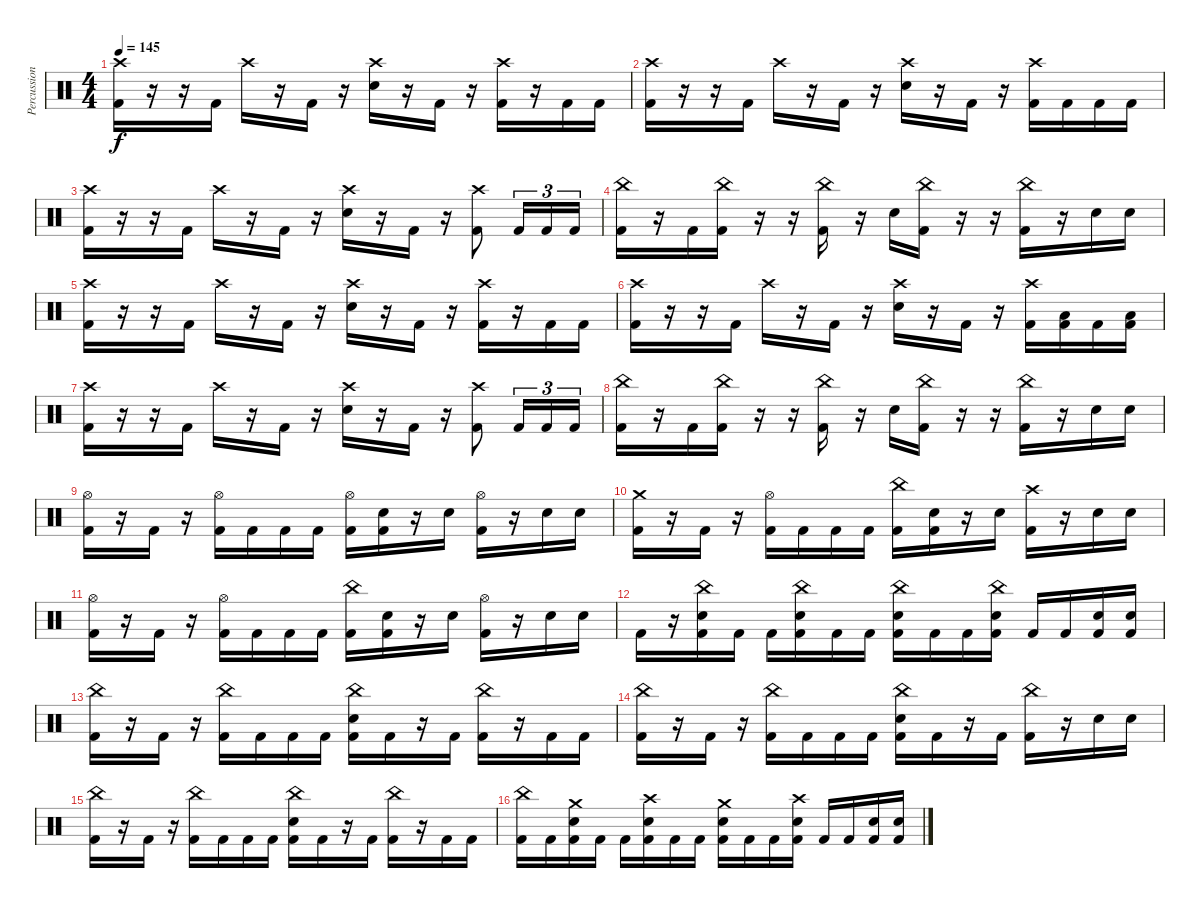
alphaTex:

\track ("Percussion" "Percussion") {instrument percussion}
\staff {score}
\articulation defaults
\ts (4 4)
\tempo 145
\clef neutral
\ks c
("Crash high (hit)" "Kick (hit) 2").16{dy f} r.16 r.16 "Kick (hit) 2".16 "Crash high (hit)".16 r.16 "Kick (hit) 2".16 r.16 ("Crash high (hit)" "Electric Snare (hit)").16 r.16 "Kick (hit) 2".16 r.16 ("Crash high (hit)" "Kick (hit) 2").16 r.16 "Kick (hit) 2".16 "Kick (hit) 2".16 |
("Crash high (hit)" "Kick (hit) 2").16 r.16 r.16 "Kick (hit) 2".16 "Crash high (hit)".16 r.16 "Kick (hit) 2".16 r.16 ("Crash high (hit)" "Electric Snare (hit)").16 r.16 "Kick (hit) 2".16 r.16 ("Crash high (hit)" "Kick (hit) 2").16 "Kick (hit) 2".16 "Kick (hit) 2".16 "Kick (hit) 2".16 |
("Crash high (hit)" "Kick (hit) 2").16 r.16 r.16 "Kick (hit) 2".16 "Crash high (hit)".16 r.16 "Kick (hit) 2".16 r.16 ("Crash high (hit)" "Electric Snare (hit)").16 r.16 "Kick (hit) 2".16 r.16 ("Crash high (hit)" "Kick (hit) 2").8 "Kick (hit) 2".16{tu (3 2)} "Kick (hit) 2".16{tu (3 2)} "Kick (hit) 2".16{tu (3 2)} |
("China (hit)" "Kick (hit) 2").16 r.16 "Kick (hit) 2".16 ("China (hit)" "Kick (hit) 2").16 r.16 r.16 ("China (hit)" "Kick (hit) 2").16 r.16 "Electric Snare (hit)".16 ("China (hit)" "Kick (hit) 2").16 r.16 r.16 ("China (hit)" "Kick (hit) 2").16 r.16 "Electric Snare (hit)".16 "Electric Snare (hit)".16 |
("Crash high (hit)" "Kick (hit) 2").16 r.16 r.16 "Kick (hit) 2".16 "Crash high (hit)".16 r.16 "Kick (hit) 2".16 r.16 ("Crash high (hit)" "Electric Snare (hit)").16 r.16 "Kick (hit) 2".16 r.16 ("Crash high (hit)" "Kick (hit) 2").16 r.16 "Kick (hit) 2".16 "Kick (hit) 2".16 |
("Crash high (hit)" "Kick (hit) 2").16 r.16 r.16 "Kick (hit) 2".16 "Crash high (hit)".16 r.16 "Kick (hit) 2".16 r.16 ("Crash high (hit)" "Electric Snare (hit)").16 r.16 "Kick (hit) 2".16 r.16 ("Crash high (hit)" "Kick (hit) 2").16 ("Low Floor Tom (hit)" "Kick (hit) 2").16 "Kick (hit) 2".16 ("Low Floor Tom (hit)" "Kick (hit) 2").16 |
("Crash high (hit)" "Kick (hit) 2").16 r.16 r.16 "Kick (hit) 2".16 "Crash high (hit)".16 r.16 "Kick (hit) 2".16 r.16 ("Crash high (hit)" "Electric Snare (hit)").16 r.16 "Kick (hit) 2".16 r.16 ("Crash high (hit)" "Kick (hit) 2").8 "Kick (hit) 2".16{tu (3 2)} "Kick (hit) 2".16{tu (3 2)} "Kick (hit) 2".16{tu (3 2)} |
("China (hit)" "Kick (hit) 2").16 r.16 "Kick (hit) 2".16 ("China (hit)" "Kick (hit) 2").16 r.16 r.16 ("China (hit)" "Kick (hit) 2").16 r.16 "Electric Snare (hit)".16 ("China (hit)" "Kick (hit) 2").16 r.16 r.16 ("China (hit)" "Kick (hit) 2").16 r.16 "Electric Snare (hit)".16 "Electric Snare (hit)".16 |
("Hi-Hat (open)" "Kick (hit) 2").16{volume 8} r.16 "Kick (hit) 2".16 r.16 ("Hi-Hat (open)" "Kick (hit) 2").16 "Kick (hit) 2".16 "Kick (hit) 2".16 "Kick (hit) 2".16 ("Hi-Hat (open)" "Kick (hit) 2").16 ("Electric Snare (hit)" "Kick (hit) 2").16 r.16 "Electric Snare (hit)".16 ("Hi-Hat (open)" "Kick (hit) 2").16 r.16 "Electric Snare (hit)".16 "Electric Snare (hit)".16 |
("Crash medium (hit)" "Kick (hit) 2").16 r.16 "Kick (hit) 2".16 r.16 ("Hi-Hat (open)" "Kick (hit) 2").16 "Kick (hit) 2".16 "Kick (hit) 2".16 "Kick (hit) 2".16 ("China (hit)" "Kick (hit) 2").16 ("Electric Snare (hit)" "Kick (hit) 2").16 r.16 "Electric Snare (hit)".16 ("Crash high (hit)" "Kick (hit) 2").16 r.16 "Electric Snare (hit)".16 "Electric Snare (hit)".16 |
("Hi-Hat (open)" "Kick (hit) 2").16 r.16 "Kick (hit) 2".16 r.16 ("Hi-Hat (open)" "Kick (hit) 2").16 "Kick (hit) 2".16 "Kick (hit) 2".16 "Kick (hit) 2".16 ("China (hit)" "Kick (hit) 2").16 ("Electric Snare (hit)" "Kick (hit) 2").16 r.16 "Electric Snare (hit)".16 ("Hi-Hat (open)" "Kick (hit) 2").16 r.16 "Electric Snare (hit)".16 "Electric Snare (hit)".16 |
"Kick (hit) 2".16 r.16 ("China (hit)" "Electric Snare (hit)" "Kick (hit) 2").16{volume 13} "Kick (hit) 2".16 "Kick (hit) 2".16 ("China (hit)" "Electric Snare (hit)" "Kick (hit) 2").16 "Kick (hit) 2".16 "Kick (hit) 2".16 ("China (hit)" "Electric Snare (hit)" "Kick (hit) 2").16 "Kick (hit) 2".16 "Kick (hit) 2".16 ("China (hit)" "Electric Snare (hit)" "Kick (hit) 2").16 "Kick (hit) 2".16 "Kick (hit) 2".16 ("Electric Snare (hit)" "Kick (hit) 2").16 ("Electric Snare (hit)" "Kick (hit) 2").16 |
("China (hit)" "Kick (hit) 2").16 r.16 "Kick (hit) 2".16 r.16 ("China (hit)" "Kick (hit) 2").16 "Kick (hit) 2".16 "Kick (hit) 2".16 "Kick (hit) 2".16 ("China (hit)" "Electric Snare (hit)" "Kick (hit) 2").16 "Kick (hit) 2".16 r.16 "Kick (hit) 2".16 ("China (hit)" "Kick (hit) 2").16 r.16 "Kick (hit) 2".16 "Kick (hit) 2".16 |
("China (hit)" "Kick (hit) 2").16 r.16 "Kick (hit) 2".16 r.16 ("China (hit)" "Kick (hit) 2").16 "Kick (hit) 2".16 "Kick (hit) 2".16 "Kick (hit) 2".16 ("China (hit)" "Electric Snare (hit)" "Kick (hit) 2").16 "Kick (hit) 2".16 r.16 "Kick (hit) 2".16 ("China (hit)" "Kick (hit) 2").16 r.16 "Electric Snare (hit)".16 "Electric Snare (hit)".16 |
("China (hit)" "Kick (hit) 2").16 r.16 "Kick (hit) 2".16 r.16 ("China (hit)" "Kick (hit) 2").16 "Kick (hit) 2".16 "Kick (hit) 2".16 "Kick (hit) 2".16 ("China (hit)" "Electric Snare (hit)" "Kick (hit) 2").16 "Kick (hit) 2".16 r.16 "Kick (hit) 2".16 ("China (hit)" "Kick (hit) 2").16 r.16 "Kick (hit) 2".16 "Kick (hit) 2".16 |
("China (hit)" "Kick (hit) 2").16 "Kick (hit) 2".16 ("Crash medium (hit)" "Electric Snare (hit)" "Kick (hit) 2").16 "Kick (hit) 2".16 "Kick (hit) 2".16 ("Crash high (hit)" "Electric Snare (hit)" "Kick (hit) 2").16 "Kick (hit) 2".16 "Kick (hit) 2".16 ("Crash medium (hit)" "Electric Snare (hit)" "Kick (hit) 2").16 "Kick (hit) 2".16 "Kick (hit) 2".16 ("Crash high (hit)" "Electric Snare (hit)" "Kick (hit) 2").16 "Kick (hit) 2".16 "Kick (hit) 2".16 ("Electric Snare (hit)" "Kick (hit) 2").16 ("Electric Snare (hit)" "Kick (hit) 2").16
